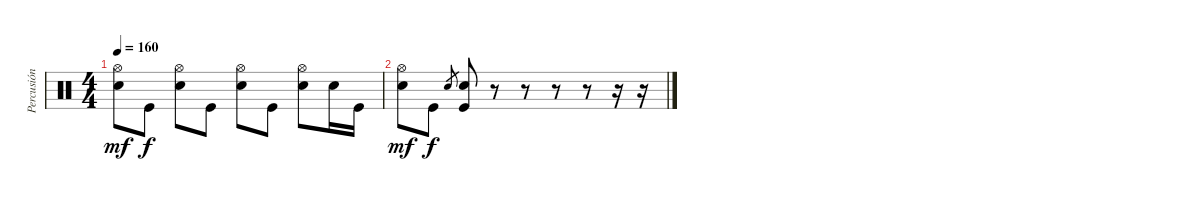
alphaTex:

\track ("Percusión" "Percusión") {instrument percussion}
\staff {score}
\articulation defaults
\ts (4 4)
\tempo 160
\clef neutral
\ks c
("Hi-Hat (open)" "Electric Snare (hit)").8{dy mf} "Kick (hit)".8{dy f} ("Hi-Hat (open)" "Electric Snare (hit)").8 "Kick (hit)".8 ("Hi-Hat (open)" "Electric Snare (hit)").8 "Kick (hit)".8 ("Hi-Hat (open)" "Electric Snare (hit)").8 "Snare (hit)".16 "Kick (hit)".16 |
("Hi-Hat (open)" "Electric Snare (hit)").8{dy mf} "Kick (hit)".8{dy f} "Electric Snare (hit)".8{gr} ("Kick (hit)" "Electric Snare (hit)").8 r.8 r.8 r.8 r.8 r.16 r.16
